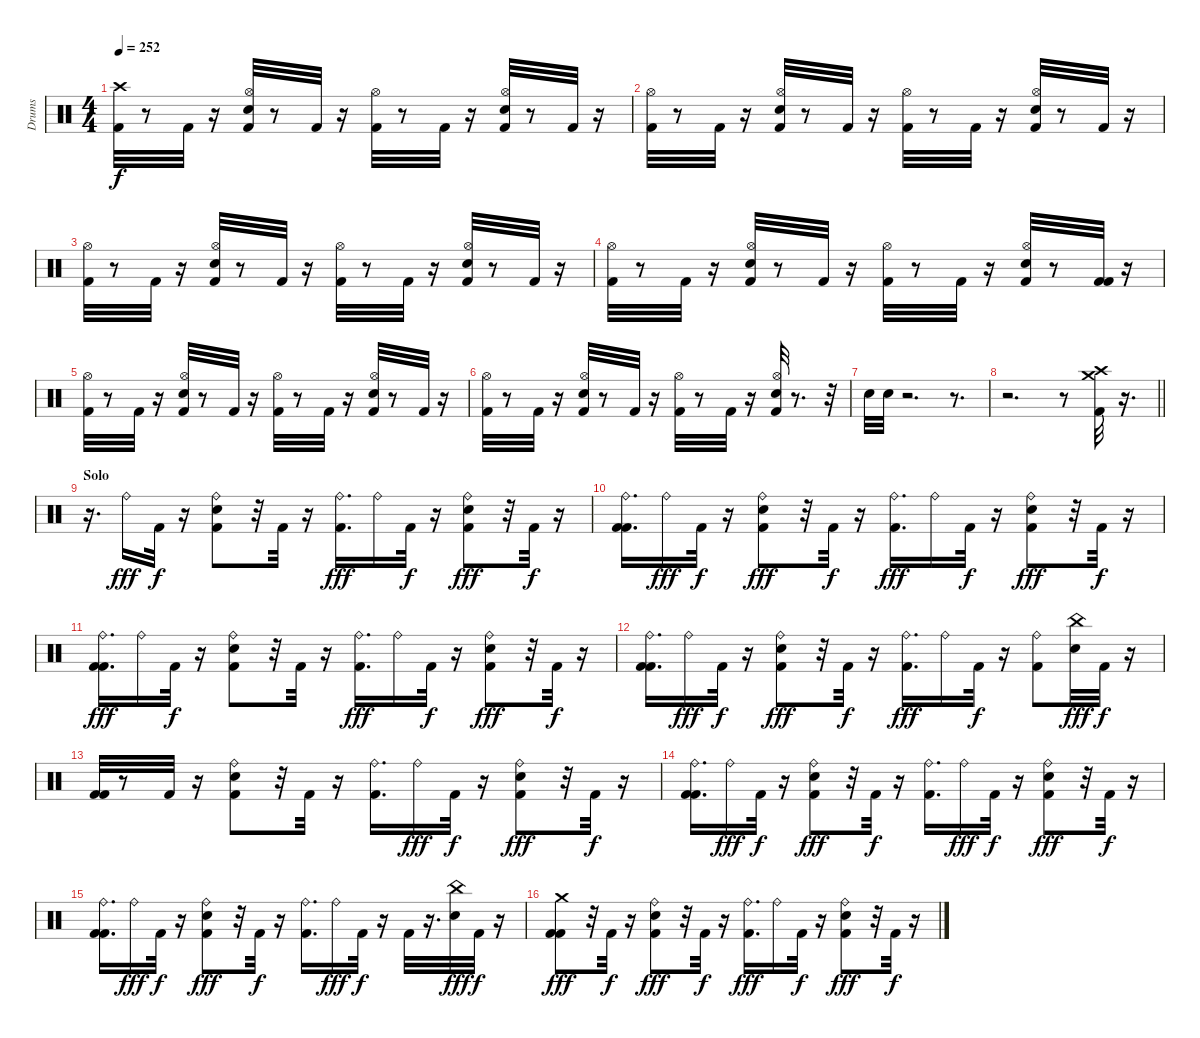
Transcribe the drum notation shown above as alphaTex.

\track ("Drums" "Drums") {instrument percussion}
\staff {score}
\articulation defaults
\ts (4 4)
\tempo 252
\clef neutral
\ks c
("Kick (hit) 2" "Crash high (hit)").32{dy f} r.8 "Kick (hit) 2".32 r.16 ("Kick (hit) 2" "Hi-Hat (open)" "Snare (hit) 2").32 r.8 "Kick (hit) 2".32 r.16 ("Hi-Hat (open)" "Kick (hit) 2").32 r.8 "Kick (hit) 2".32 r.16 ("Kick (hit) 2" "Hi-Hat (open)" "Snare (hit) 2").32 r.8 "Kick (hit) 2".32 r.16 |
("Hi-Hat (open)" "Kick (hit) 2").32 r.8 "Kick (hit) 2".32 r.16 ("Snare (hit) 2" "Kick (hit) 2" "Hi-Hat (open)").32 r.8 "Kick (hit) 2".32 r.16 ("Kick (hit) 2" "Hi-Hat (open)").32 r.8 "Kick (hit) 2".32 r.16 ("Hi-Hat (open)" "Snare (hit) 2" "Kick (hit) 2").32 r.8 "Kick (hit) 2".32 r.16 |
("Hi-Hat (open)" "Kick (hit) 2").32 r.8 "Kick (hit) 2".32 r.16 ("Hi-Hat (open)" "Kick (hit) 2" "Snare (hit) 2").32 r.8 "Kick (hit) 2".32 r.16 ("Kick (hit) 2" "Hi-Hat (open)").32 r.8 "Kick (hit) 2".32 r.16 ("Hi-Hat (open)" "Kick (hit) 2" "Snare (hit) 2").32 r.8 "Kick (hit) 2".32 r.16 |
("Hi-Hat (open)" "Kick (hit) 2").32 r.8 "Kick (hit) 2".32 r.16 ("Hi-Hat (open)" "Snare (hit) 2" "Kick (hit) 2").32 r.8 "Kick (hit) 2".32 r.16 ("Hi-Hat (open)" "Kick (hit) 2").32 r.8 "Kick (hit) 2".32 r.16 ("Kick (hit) 2" "Hi-Hat (open)" "Snare (hit) 2").32 r.8 ("Kick (hit) 2" "Kick (hit) 2").32 r.16 |
("Kick (hit) 2" "Hi-Hat (open)").32 r.8 "Kick (hit) 2".32 r.16 ("Snare (hit) 2" "Kick (hit) 2" "Hi-Hat (open)").32 r.8 "Kick (hit) 2".32 r.16 ("Kick (hit) 2" "Hi-Hat (open)").32 r.8 "Kick (hit) 2".32 r.16 ("Hi-Hat (open)" "Snare (hit) 2" "Kick (hit) 2").32 r.8 "Kick (hit) 2".32 r.16 |
("Hi-Hat (open)" "Kick (hit) 2").32 r.8 "Kick (hit) 2".32 r.16 ("Snare (hit) 2" "Kick (hit) 2" "Hi-Hat (open)").32 r.8 "Kick (hit) 2".32 r.16 ("Kick (hit) 2" "Hi-Hat (open)").32 r.8 "Kick (hit) 2".32 r.16 ("Kick (hit) 2" "Snare (hit) 2" "Hi-Hat (open)").32 r.8{d} r.32 |
"Snare (hit) 2".32 "Snare (hit) 2".32 r.2{d} r.8{d} |
\barLineRight lightlight
r.2{d} r.8 ("Kick (hit) 2" "Crash high (hit)" "Crash medium (hit)").32 r.16{d} |
\section ("" "Solo")
r.16{d} "Ride (bell)".16{dy fff} "Kick (hit) 2".32{dy f} r.16 ("Kick (hit) 2" "Ride (bell)" "Snare (hit) 2").8 r.32 "Kick (hit) 2".32 r.16 ("Ride (bell)" "Kick (hit) 2").16{d dy fff} "Ride (bell)".16 "Kick (hit) 2".32{dy f} r.16 ("Snare (hit) 2" "Kick (hit) 2" "Ride (bell)").8{dy fff} r.32 "Kick (hit) 2".32{dy f} r.16 |
("Kick (hit) 2" "Ride (bell)" "Kick (hit) 2").16{d} "Ride (bell)".16{dy fff} "Kick (hit) 2".32{dy f} r.16 ("Ride (bell)" "Kick (hit) 2" "Snare (hit) 2").8{dy fff} r.32 "Kick (hit) 2".32{dy f} r.16 ("Ride (bell)" "Kick (hit) 2").16{d dy fff} "Ride (bell)".16 "Kick (hit) 2".32{dy f} r.16 ("Ride (bell)" "Kick (hit) 2" "Snare (hit) 2").8{dy fff} r.32 "Kick (hit) 2".32{dy f} r.16 |
("Ride (bell)" "Kick (hit) 2" "Kick (hit) 2").16{d dy fff} "Ride (bell)".16 "Kick (hit) 2".32{dy f} r.16 ("Kick (hit) 2" "Ride (bell)" "Snare (hit) 2").8 r.32 "Kick (hit) 2".32 r.16 ("Ride (bell)" "Kick (hit) 2").16{d dy fff} "Ride (bell)".16 "Kick (hit) 2".32{dy f} r.16 ("Ride (bell)" "Kick (hit) 2" "Snare (hit) 2").8{dy fff} r.32 "Kick (hit) 2".32{dy f} r.16 |
("Kick (hit) 2" "Kick (hit) 2" "Ride (bell)").16{d} "Ride (bell)".16{dy fff} "Kick (hit) 2".32{dy f} r.16 ("Ride (bell)" "Kick (hit) 2" "Snare (hit) 2").8{dy fff} r.32 "Kick (hit) 2".32{dy f} r.16 ("Ride (bell)" "Kick (hit) 2").16{d dy fff} "Ride (bell)".16 "Kick (hit) 2".32{dy f} r.16 ("Kick (hit) 2" "Ride (bell)").8 ("China (hit)" "Snare (hit) 2").32{dy fff} "Kick (hit) 2".32{dy f} r.16 |
("Kick (hit) 2" "Kick (hit) 2").32 r.8 "Kick (hit) 2".32 r.16 ("Kick (hit) 2" "Ride (bell)" "Snare (hit) 2").8 r.32 "Kick (hit) 2".32 r.16 ("Kick (hit) 2" "Ride (bell)").16{d} "Ride (bell)".16{dy fff} "Kick (hit) 2".32{dy f} r.16 ("Snare (hit) 2" "Ride (bell)" "Kick (hit) 2").8{dy fff} r.32 "Kick (hit) 2".32{dy f} r.16 |
("Kick (hit) 2" "Kick (hit) 2" "Ride (bell)").16{d} "Ride (bell)".16{dy fff} "Kick (hit) 2".32{dy f} r.16 ("Ride (bell)" "Snare (hit) 2" "Kick (hit) 2").8{dy fff} r.32 "Kick (hit) 2".32{dy f} r.16 ("Kick (hit) 2" "Ride (bell)").16{d} "Ride (bell)".16{dy fff} "Kick (hit) 2".32{dy f} r.16 ("Snare (hit) 2" "Ride (bell)" "Kick (hit) 2").8{dy fff} r.32 "Kick (hit) 2".32{dy f} r.16 |
("Kick (hit) 2" "Ride (bell)" "Kick (hit) 2").16{d} "Ride (bell)".16{dy fff} "Kick (hit) 2".32{dy f} r.16 ("Snare (hit) 2" "Kick (hit) 2" "Ride (bell)").8{dy fff} r.32 "Kick (hit) 2".32{dy f} r.16 ("Kick (hit) 2" "Ride (bell)").16{d} "Ride (bell)".16{dy fff} "Kick (hit) 2".32{dy f} r.16 "Kick (hit) 2".32 r.16{d} ("Snare (hit) 2" "China (hit)").32{dy fff} "Kick (hit) 2".32{dy f} r.16 |
("Crash medium (hit)" "Kick (hit) 2" "Kick (hit) 2").8{dy fff} r.32 "Kick (hit) 2".32{dy f} r.16 ("Snare (hit) 2" "Kick (hit) 2" "Ride (bell)").8{dy fff} r.32 "Kick (hit) 2".32{dy f} r.16 ("Ride (bell)" "Kick (hit) 2").16{d dy fff} "Ride (bell)".16 "Kick (hit) 2".32{dy f} r.16 ("Snare (hit) 2" "Kick (hit) 2" "Ride (bell)").8{dy fff} r.32 "Kick (hit) 2".32{dy f} r.16
